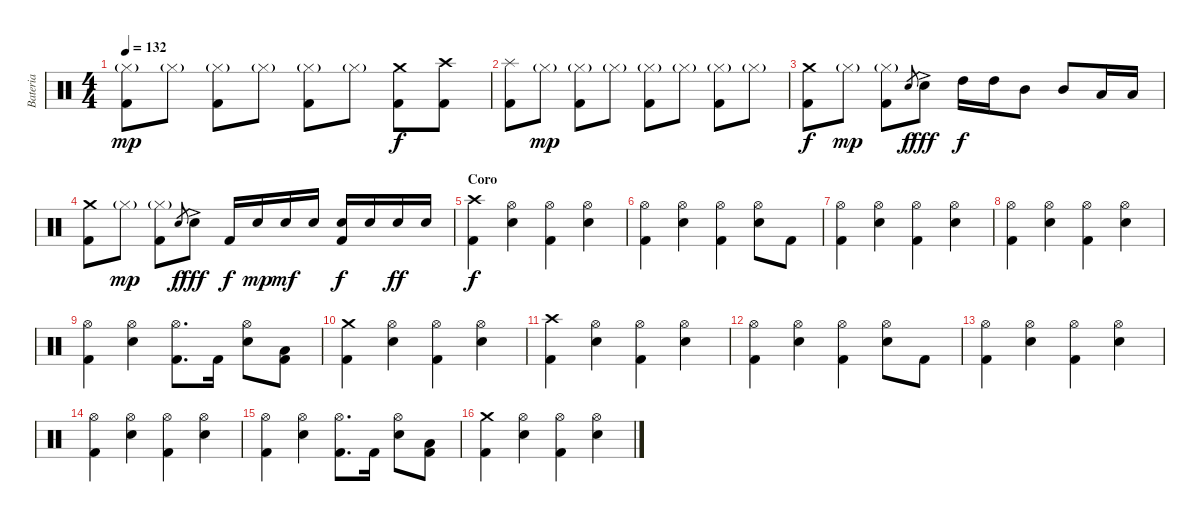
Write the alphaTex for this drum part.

\track ("Bateria" "Bateria") {instrument percussion}
\staff {score}
\articulation defaults
\ts (4 4)
\tempo 132
\clef neutral
\ks aminor
("Hi-Hat (closed)"{g} "Kick (hit) 2").8{dy mp} "Hi-Hat (closed)"{g}.8 ("Hi-Hat (closed)"{g} "Kick (hit) 2").8 "Hi-Hat (closed)"{g}.8 ("Hi-Hat (closed)"{g} "Kick (hit) 2").8 "Hi-Hat (closed)"{g}.8 ("Crash medium (hit)" "Kick (hit) 2").8{dy f} ("Crash high (hit)" "Kick (hit) 2").8 |
("Splash (hit)" "Kick (hit) 2").8 "Hi-Hat (closed)"{g}.8{dy mp} ("Hi-Hat (closed)"{g} "Kick (hit) 2").8 "Hi-Hat (closed)"{g}.8 ("Hi-Hat (closed)"{g} "Kick (hit) 2").8 "Hi-Hat (closed)"{g}.8 ("Hi-Hat (closed)"{g} "Kick (hit) 2").8 "Hi-Hat (closed)"{g}.8 |
("Crash medium (hit)" "Kick (hit) 2").8{dy f} "Hi-Hat (closed)"{g}.8{dy mp} ("Hi-Hat (closed)"{g} "Kick (hit) 2").8 "Electric Snare (hit)".8{gr dy f} "Electric Snare (hit)"{ac}.8{dy fff} "High Tom (hit)".16{dy f} "High Tom (hit)".16 "Mid Tom (hit)".8 "Mid Tom (hit)".8 "Low Tom (hit)".16 "Low Tom (hit)".16 |
("Crash medium (hit)" "Kick (hit) 2").8 "Hi-Hat (closed)"{g}.8{dy mp} ("Hi-Hat (closed)"{g} "Kick (hit) 2").8 "Electric Snare (hit)".8{gr dy f} "Electric Snare (hit)"{ac}.8{dy fff} "Kick (hit) 2".16{dy f} "Electric Snare (hit)".16{dy mp} "Electric Snare (hit)".16{dy mf} "Electric Snare (hit)".16 ("Electric Snare (hit)" "Kick (hit) 2").16{dy f} "Electric Snare (hit)".16 "Electric Snare (hit)".16{dy ff} "Electric Snare (hit)".16 |
\section ("" "Coro")
("Crash high (hit)" "Kick (hit) 2").4{dy f} ("Hi-Hat (open)" "Electric Snare (hit)").4 ("Hi-Hat (open)" "Kick (hit) 2").4 ("Hi-Hat (open)" "Electric Snare (hit)").4 |
("Hi-Hat (open)" "Kick (hit) 2").4 ("Hi-Hat (open)" "Electric Snare (hit)").4 ("Hi-Hat (open)" "Kick (hit) 2").4 ("Hi-Hat (open)" "Electric Snare (hit)").8 "Kick (hit) 2".8 |
("Hi-Hat (open)" "Kick (hit) 2").4 ("Hi-Hat (open)" "Electric Snare (hit)").4 ("Hi-Hat (open)" "Kick (hit) 2").4 ("Hi-Hat (open)" "Electric Snare (hit)").4 |
("Hi-Hat (open)" "Kick (hit) 2").4 ("Hi-Hat (open)" "Electric Snare (hit)").4 ("Hi-Hat (open)" "Kick (hit) 2").4 ("Hi-Hat (open)" "Electric Snare (hit)").4 |
("Hi-Hat (open)" "Kick (hit) 2").4 ("Hi-Hat (open)" "Electric Snare (hit)").4 ("Hi-Hat (open)" "Kick (hit) 2").8{d} "Kick (hit) 2".16 ("Hi-Hat (open)" "Electric Snare (hit)").8 ("Low Tom (hit)" "Kick (hit) 2").8 |
("Crash medium (hit)" "Kick (hit) 2").4 ("Hi-Hat (open)" "Electric Snare (hit)").4 ("Hi-Hat (open)" "Kick (hit) 2").4 ("Hi-Hat (open)" "Electric Snare (hit)").4 |
("Crash high (hit)" "Kick (hit) 2").4 ("Hi-Hat (open)" "Electric Snare (hit)").4 ("Hi-Hat (open)" "Kick (hit) 2").4 ("Hi-Hat (open)" "Electric Snare (hit)").4 |
("Hi-Hat (open)" "Kick (hit) 2").4 ("Hi-Hat (open)" "Electric Snare (hit)").4 ("Hi-Hat (open)" "Kick (hit) 2").4 ("Hi-Hat (open)" "Electric Snare (hit)").8 "Kick (hit) 2".8 |
("Hi-Hat (open)" "Kick (hit) 2").4 ("Hi-Hat (open)" "Electric Snare (hit)").4 ("Hi-Hat (open)" "Kick (hit) 2").4 ("Hi-Hat (open)" "Electric Snare (hit)").4 |
("Hi-Hat (open)" "Kick (hit) 2").4 ("Hi-Hat (open)" "Electric Snare (hit)").4 ("Hi-Hat (open)" "Kick (hit) 2").4 ("Hi-Hat (open)" "Electric Snare (hit)").4 |
("Hi-Hat (open)" "Kick (hit) 2").4 ("Hi-Hat (open)" "Electric Snare (hit)").4 ("Hi-Hat (open)" "Kick (hit) 2").8{d} "Kick (hit) 2".16 ("Hi-Hat (open)" "Electric Snare (hit)").8 ("Low Tom (hit)" "Kick (hit) 2").8 |
("Crash medium (hit)" "Kick (hit) 2").4 ("Hi-Hat (open)" "Electric Snare (hit)").4 ("Hi-Hat (open)" "Kick (hit) 2").4 ("Hi-Hat (open)" "Electric Snare (hit)").4
